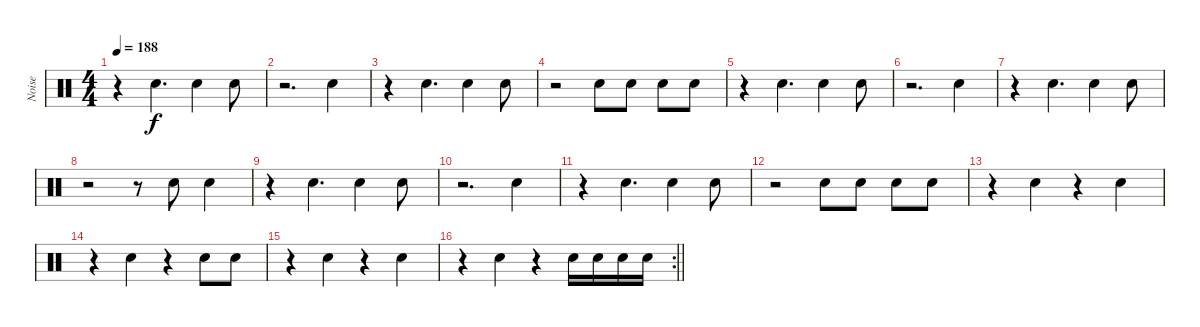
\track ("Noise" "Noise") {instrument percussion}
\staff {score}
\articulation defaults
\ts (4 4)
\tempo 188
\clef neutral
\ks c
r.4{dy f} "Snare (hit) 2".4{d} "Snare (hit) 2".4 "Snare (hit) 2".8 |
r.2{d} "Snare (hit) 2".4 |
r.4 "Snare (hit) 2".4{d} "Snare (hit) 2".4 "Snare (hit) 2".8 |
r.2 "Snare (hit) 2".8 "Snare (hit) 2".8 "Snare (hit) 2".8 "Snare (hit) 2".8 |
r.4 "Snare (hit) 2".4{d} "Snare (hit) 2".4 "Snare (hit) 2".8 |
r.2{d} "Snare (hit) 2".4 |
r.4 "Snare (hit) 2".4{d} "Snare (hit) 2".4 "Snare (hit) 2".8 |
r.2 r.8 "Snare (hit) 2".8 "Snare (hit) 2".4 |
r.4 "Snare (hit) 2".4{d} "Snare (hit) 2".4 "Snare (hit) 2".8 |
r.2{d} "Snare (hit) 2".4 |
r.4 "Snare (hit) 2".4{d} "Snare (hit) 2".4 "Snare (hit) 2".8 |
r.2 "Snare (hit) 2".8 "Snare (hit) 2".8 "Snare (hit) 2".8 "Snare (hit) 2".8 |
r.4 "Snare (hit) 2".4 r.4 "Snare (hit) 2".4 |
r.4 "Snare (hit) 2".4 r.4 "Snare (hit) 2".8 "Snare (hit) 2".8 |
r.4 "Snare (hit) 2".4 r.4 "Snare (hit) 2".4 |
\rc 2
\barLineRight lightlight
r.4 "Snare (hit) 2".4 r.4 "Snare (hit) 2".16 "Snare (hit) 2".16 "Snare (hit) 2".16 "Snare (hit) 2".16
